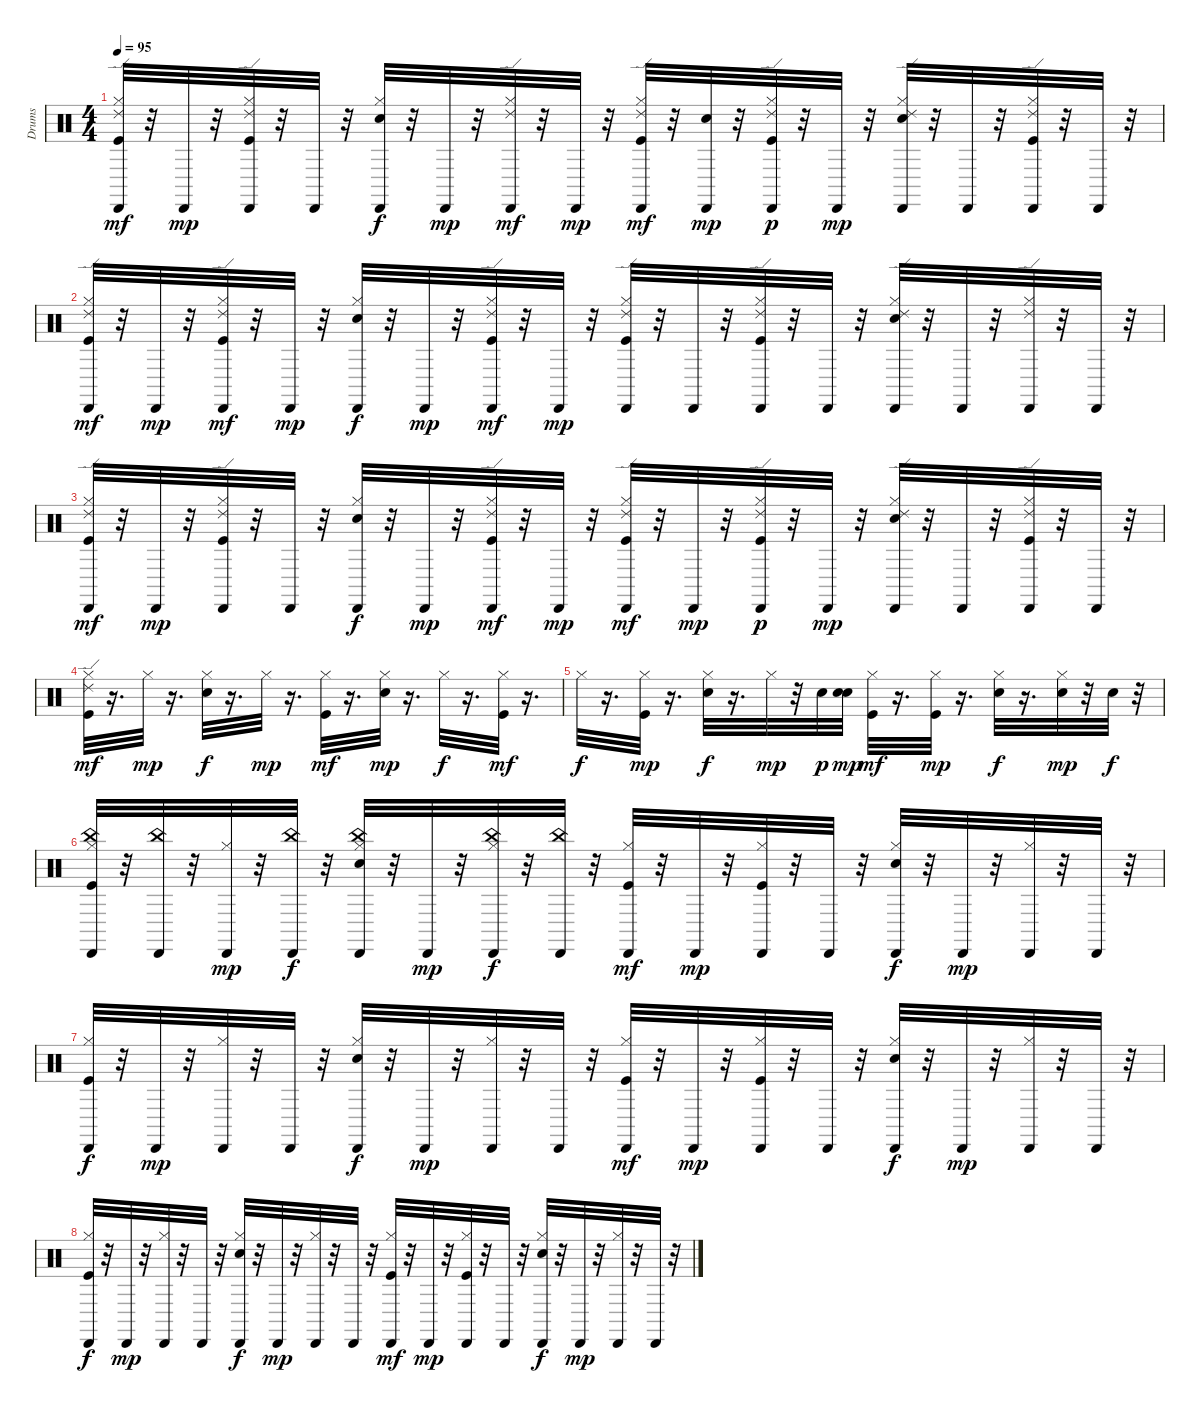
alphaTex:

\track ("Drums" "Drums") {instrument percussion}
\staff {score}
\articulation defaults
\ts (4 4)
\tempo 95
\clef neutral
\ks c
("Hi-Hat (closed)" "Kick (hit)" "Cabasa (hit)" "Ride (edge) 2").32{dy mf} r.32 "Cabasa (hit)".32{dy mp} r.32 ("Hi-Hat (closed)" "Kick (hit)" "Cabasa (hit)" "Ride (edge) 2").32 r.32 "Cabasa (hit)".32 r.32 ("Hi-Hat (closed)" "Electric Snare (hit)" "Cabasa (hit)").32{dy f} r.32 "Cabasa (hit)".32{dy mp} r.32 ("Hi-Hat (closed)" "Cabasa (hit)" "Ride (edge) 2").32{dy mf} r.32 "Cabasa (hit)".32{dy mp} r.32 ("Hi-Hat (closed)" "Kick (hit)" "Cabasa (hit)" "Ride (edge) 2").32{dy mf} r.32 ("Electric Snare (hit)" "Cabasa (hit)").32{dy mp} r.32 ("Hi-Hat (closed)" "Kick (hit)" "Cabasa (hit)" "Ride (edge) 2").32{dy p} r.32 "Cabasa (hit)".32{dy mp} r.32 ("Hi-Hat (closed)" "Electric Snare (hit)" "Cabasa (hit)" "Ride (edge) 2").32 r.32 "Cabasa (hit)".32 r.32 ("Hi-Hat (closed)" "Kick (hit)" "Cabasa (hit)" "Ride (edge) 2").32 r.32 "Cabasa (hit)".32 r.32 |
("Kick (hit)" "Hi-Hat (closed)" "Cabasa (hit)" "Ride (edge) 2").32{dy mf} r.32 "Cabasa (hit)".32{dy mp} r.32 ("Hi-Hat (closed)" "Kick (hit)" "Cabasa (hit)" "Ride (edge) 2").32{dy mf} r.32 "Cabasa (hit)".32{dy mp} r.32 ("Hi-Hat (closed)" "Electric Snare (hit)" "Cabasa (hit)").32{dy f} r.32 "Cabasa (hit)".32{dy mp} r.32 ("Hi-Hat (closed)" "Kick (hit)" "Cabasa (hit)" "Ride (edge) 2").32{dy mf} r.32 "Cabasa (hit)".32{dy mp} r.32 ("Hi-Hat (closed)" "Kick (hit)" "Cabasa (hit)" "Ride (edge) 2").32 r.32 "Cabasa (hit)".32 r.32 ("Hi-Hat (closed)" "Kick (hit)" "Cabasa (hit)" "Ride (edge) 2").32 r.32 "Cabasa (hit)".32 r.32 ("Hi-Hat (closed)" "Electric Snare (hit)" "Cabasa (hit)" "Ride (edge) 2").32 r.32 "Cabasa (hit)".32 r.32 ("Hi-Hat (closed)" "Cabasa (hit)" "Ride (edge) 2").32 r.32 "Cabasa (hit)".32 r.32 |
("Hi-Hat (closed)" "Kick (hit)" "Cabasa (hit)" "Ride (edge) 2").32{dy mf} r.32 "Cabasa (hit)".32{dy mp} r.32 ("Hi-Hat (closed)" "Kick (hit)" "Cabasa (hit)" "Ride (edge) 2").32 r.32 "Cabasa (hit)".32 r.32 ("Hi-Hat (closed)" "Electric Snare (hit)" "Cabasa (hit)").32{dy f} r.32 "Cabasa (hit)".32{dy mp} r.32 ("Hi-Hat (closed)" "Kick (hit)" "Cabasa (hit)" "Ride (edge) 2").32{dy mf} r.32 "Cabasa (hit)".32{dy mp} r.32 ("Hi-Hat (closed)" "Kick (hit)" "Cabasa (hit)" "Ride (edge) 2").32{dy mf} r.32 "Cabasa (hit)".32{dy mp} r.32 ("Hi-Hat (closed)" "Kick (hit)" "Cabasa (hit)" "Ride (edge) 2").32{dy p} r.32 "Cabasa (hit)".32{dy mp} r.32 ("Hi-Hat (closed)" "Electric Snare (hit)" "Cabasa (hit)" "Ride (edge) 2").32 r.32 "Cabasa (hit)".32 r.32 ("Hi-Hat (closed)" "Kick (hit)" "Cabasa (hit)" "Ride (edge) 2").32 r.32 "Cabasa (hit)".32 r.32 |
("Kick (hit)" "Hi-Hat (closed)" "Ride (edge) 2").32{dy mf} r.16{d} "Hi-Hat (closed)".32{dy mp} r.16{d} ("Hi-Hat (closed)" "Electric Snare (hit)").32{dy f} r.16{d} "Hi-Hat (closed)".32{dy mp} r.16{d} ("Hi-Hat (closed)" "Kick (hit)").32{dy mf} r.16{d} ("Hi-Hat (closed)" "Electric Snare (hit)").32{dy mp} r.16{d} "Hi-Hat (closed)".32{dy f} r.16{d} ("Hi-Hat (closed)" "Kick (hit)").32{dy mf} r.16{d} |
"Hi-Hat (closed)".32{dy f} r.16{d} ("Hi-Hat (closed)" "Kick (hit)").32{dy mp} r.16{d} ("Hi-Hat (closed)" "Electric Snare (hit)").32{dy f} r.16{d} "Hi-Hat (closed)".32{dy mp} r.32 "Electric Snare (hit)".32{dy p} ("Electric Snare (hit)" "Electric Snare (hit)").32{dy mp} ("Hi-Hat (closed)" "Kick (hit)").32{dy mf} r.16{d} ("Hi-Hat (closed)" "Kick (hit)").32{dy mp} r.16{d} ("Hi-Hat (closed)" "Electric Snare (hit)").32{dy f} r.16{d} ("Hi-Hat (closed)" "Electric Snare (hit)").32{dy mp} r.32 "Electric Snare (hit)".32{dy f} r.32 |
("Kick (hit)" "Hi-Hat (closed)" "Cabasa (hit)" "China (choke)").32 r.32 ("Cabasa (hit)" "China (choke)").32 r.32 ("Hi-Hat (closed)" "Cabasa (hit)").32{dy mp} r.32 ("Cabasa (hit)" "China (choke)").32{dy f} r.32 ("Hi-Hat (closed)" "Electric Snare (hit)" "Cabasa (hit)" "China (choke)").32 r.32 "Cabasa (hit)".32{dy mp} r.32 ("Hi-Hat (closed)" "Cabasa (hit)" "China (choke)").32{dy f} r.32 ("Cabasa (hit)" "China (choke)").32 r.32 ("Hi-Hat (closed)" "Kick (hit)" "Cabasa (hit)").32{dy mf} r.32 "Cabasa (hit)".32{dy mp} r.32 ("Hi-Hat (closed)" "Kick (hit)" "Cabasa (hit)").32 r.32 "Cabasa (hit)".32 r.32 ("Hi-Hat (closed)" "Electric Snare (hit)" "Cabasa (hit)").32{dy f} r.32 "Cabasa (hit)".32{dy mp} r.32 ("Hi-Hat (closed)" "Cabasa (hit)").32 r.32 "Cabasa (hit)".32 r.32 |
("Hi-Hat (closed)" "Kick (hit)" "Cabasa (hit)").32{dy f} r.32 "Cabasa (hit)".32{dy mp} r.32 ("Hi-Hat (closed)" "Cabasa (hit)").32 r.32 "Cabasa (hit)".32 r.32 ("Hi-Hat (closed)" "Electric Snare (hit)" "Cabasa (hit)").32{dy f} r.32 "Cabasa (hit)".32{dy mp} r.32 ("Hi-Hat (closed)" "Cabasa (hit)").32 r.32 "Cabasa (hit)".32 r.32 ("Hi-Hat (closed)" "Kick (hit)" "Cabasa (hit)").32{dy mf} r.32 "Cabasa (hit)".32{dy mp} r.32 ("Hi-Hat (closed)" "Kick (hit)" "Cabasa (hit)").32 r.32 "Cabasa (hit)".32 r.32 ("Hi-Hat (closed)" "Electric Snare (hit)" "Cabasa (hit)").32{dy f} r.32 "Cabasa (hit)".32{dy mp} r.32 ("Hi-Hat (closed)" "Cabasa (hit)").32 r.32 "Cabasa (hit)".32 r.32 |
("Kick (hit)" "Hi-Hat (closed)" "Cabasa (hit)").32{dy f} r.32 "Cabasa (hit)".32{dy mp} r.32 ("Hi-Hat (closed)" "Cabasa (hit)").32 r.32 "Cabasa (hit)".32 r.32 ("Hi-Hat (closed)" "Electric Snare (hit)" "Cabasa (hit)").32{dy f} r.32 "Cabasa (hit)".32{dy mp} r.32 ("Hi-Hat (closed)" "Cabasa (hit)").32 r.32 "Cabasa (hit)".32 r.32 ("Hi-Hat (closed)" "Kick (hit)" "Cabasa (hit)").32{dy mf} r.32 "Cabasa (hit)".32{dy mp} r.32 ("Hi-Hat (closed)" "Kick (hit)" "Cabasa (hit)").32 r.32 "Cabasa (hit)".32 r.32 ("Hi-Hat (closed)" "Electric Snare (hit)" "Cabasa (hit)").32{dy f} r.32 "Cabasa (hit)".32{dy mp} r.32 ("Hi-Hat (closed)" "Cabasa (hit)").32 r.32 "Cabasa (hit)".32 r.32
